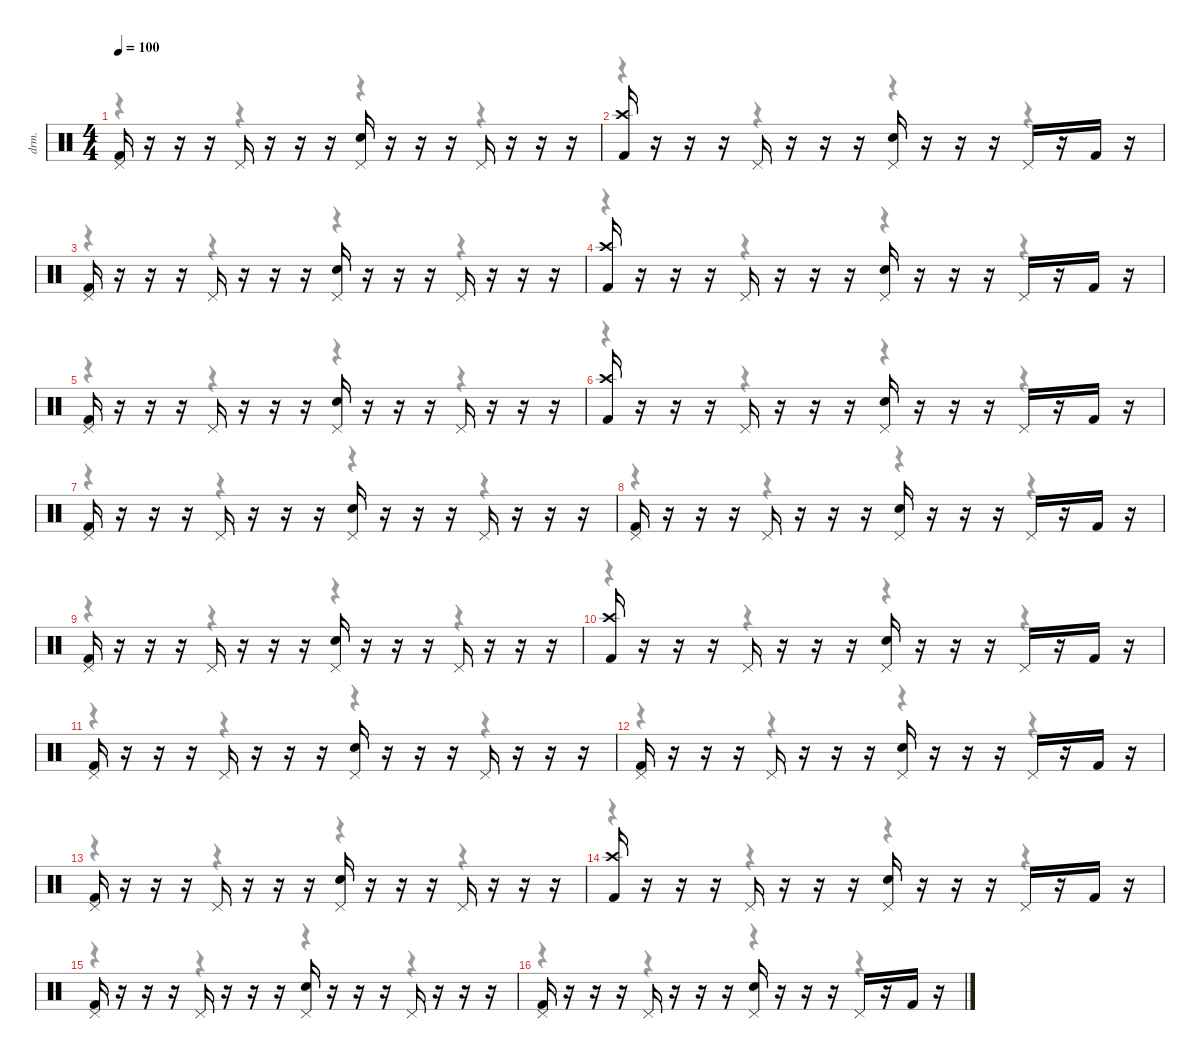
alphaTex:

\defaultSystemsLayout 4
\hideDynamics
\bracketExtendMode nobrackets
\otherSystemsTrackNameOrientation horizontal
\track ("Drums" "drm.") {instrument percussion}
\staff {score}
\articulation defaults
\voice
\ts (4 4)
\tempo 100
\clef neutral
\ks c
("Kick (hit) 2" "Pedal Hi-Hat (hit)").16{dy ff} r.16 r.16 r.16 "Pedal Hi-Hat (hit)".16 r.16 r.16 r.16 ("Snare (hit) 2" "Pedal Hi-Hat (hit)").16 r.16 r.16 r.16 "Pedal Hi-Hat (hit)".16 r.16 r.16 r.16 |
("Kick (hit) 2" "Crash high (hit)").16 r.16 r.16 r.16 "Pedal Hi-Hat (hit)".16 r.16 r.16 r.16 ("Snare (hit) 2" "Pedal Hi-Hat (hit)").16 r.16 r.16 r.16 "Pedal Hi-Hat (hit)".16 r.16 "Kick (hit) 2".16{dy f} r.16 |
("Kick (hit) 2" "Pedal Hi-Hat (hit)").16{dy ff} r.16 r.16 r.16 "Pedal Hi-Hat (hit)".16 r.16 r.16 r.16 ("Snare (hit) 2" "Pedal Hi-Hat (hit)").16 r.16 r.16 r.16 "Pedal Hi-Hat (hit)".16 r.16 r.16 r.16 |
("Kick (hit) 2" "Crash high (hit)").16 r.16 r.16 r.16 "Pedal Hi-Hat (hit)".16 r.16 r.16 r.16 ("Snare (hit) 2" "Pedal Hi-Hat (hit)").16 r.16 r.16 r.16 "Pedal Hi-Hat (hit)".16 r.16 "Kick (hit) 2".16{dy f} r.16 |
("Kick (hit) 2" "Pedal Hi-Hat (hit)").16{dy ff} r.16 r.16 r.16 "Pedal Hi-Hat (hit)".16 r.16 r.16 r.16 ("Snare (hit) 2" "Pedal Hi-Hat (hit)").16 r.16 r.16 r.16 "Pedal Hi-Hat (hit)".16 r.16 r.16 r.16 |
("Kick (hit) 2" "Crash high (hit)").16 r.16 r.16 r.16 "Pedal Hi-Hat (hit)".16 r.16 r.16 r.16 ("Snare (hit) 2" "Pedal Hi-Hat (hit)").16 r.16 r.16 r.16 "Pedal Hi-Hat (hit)".16 r.16 "Kick (hit) 2".16{dy f} r.16 |
("Kick (hit) 2" "Pedal Hi-Hat (hit)").16{dy ff} r.16 r.16 r.16 "Pedal Hi-Hat (hit)".16 r.16 r.16 r.16 ("Snare (hit) 2" "Pedal Hi-Hat (hit)").16 r.16 r.16 r.16 "Pedal Hi-Hat (hit)".16 r.16 r.16 r.16 |
("Kick (hit) 2" "Pedal Hi-Hat (hit)").16 r.16 r.16 r.16 "Pedal Hi-Hat (hit)".16 r.16 r.16 r.16 ("Snare (hit) 2" "Pedal Hi-Hat (hit)").16 r.16 r.16 r.16 "Pedal Hi-Hat (hit)".16 r.16 "Kick (hit) 2".16{dy f} r.16 |
("Kick (hit) 2" "Pedal Hi-Hat (hit)").16{dy ff} r.16 r.16 r.16 "Pedal Hi-Hat (hit)".16 r.16 r.16 r.16 ("Snare (hit) 2" "Pedal Hi-Hat (hit)").16 r.16 r.16 r.16 "Pedal Hi-Hat (hit)".16 r.16 r.16 r.16 |
("Kick (hit) 2" "Crash high (hit)").16 r.16 r.16 r.16 "Pedal Hi-Hat (hit)".16 r.16 r.16 r.16 ("Snare (hit) 2" "Pedal Hi-Hat (hit)").16 r.16 r.16 r.16 "Pedal Hi-Hat (hit)".16 r.16 "Kick (hit) 2".16{dy f} r.16 |
("Kick (hit) 2" "Pedal Hi-Hat (hit)").16{dy ff} r.16 r.16 r.16 "Pedal Hi-Hat (hit)".16 r.16 r.16 r.16 ("Snare (hit) 2" "Pedal Hi-Hat (hit)").16 r.16 r.16 r.16 "Pedal Hi-Hat (hit)".16 r.16 r.16 r.16 |
("Kick (hit) 2" "Pedal Hi-Hat (hit)").16 r.16 r.16 r.16 "Pedal Hi-Hat (hit)".16 r.16 r.16 r.16 ("Snare (hit) 2" "Pedal Hi-Hat (hit)").16 r.16 r.16 r.16 "Pedal Hi-Hat (hit)".16 r.16 "Kick (hit) 2".16{dy f} r.16 |
("Kick (hit) 2" "Pedal Hi-Hat (hit)").16{dy ff} r.16 r.16 r.16 "Pedal Hi-Hat (hit)".16 r.16 r.16 r.16 ("Snare (hit) 2" "Pedal Hi-Hat (hit)").16 r.16 r.16 r.16 "Pedal Hi-Hat (hit)".16 r.16 r.16 r.16 |
("Kick (hit) 2" "Crash high (hit)").16 r.16 r.16 r.16 "Pedal Hi-Hat (hit)".16 r.16 r.16 r.16 ("Snare (hit) 2" "Pedal Hi-Hat (hit)").16 r.16 r.16 r.16 "Pedal Hi-Hat (hit)".16 r.16 "Kick (hit) 2".16{dy f} r.16 |
("Kick (hit) 2" "Pedal Hi-Hat (hit)").16{dy ff} r.16 r.16 r.16 "Pedal Hi-Hat (hit)".16 r.16 r.16 r.16 ("Snare (hit) 2" "Pedal Hi-Hat (hit)").16 r.16 r.16 r.16 "Pedal Hi-Hat (hit)".16 r.16 r.16 r.16 |
("Kick (hit) 2" "Pedal Hi-Hat (hit)").16 r.16 r.16 r.16 "Pedal Hi-Hat (hit)".16 r.16 r.16 r.16 ("Snare (hit) 2" "Pedal Hi-Hat (hit)").16 r.16 r.16 r.16 "Pedal Hi-Hat (hit)".16 r.16 "Kick (hit) 2".16{dy f} r.16
\voice
\clef neutral
\ottava regular
\simile none
\ks c
r.4{dy mf} r.4 r.4 r.4 |
r.4 r.4 r.4 r.4 |
r.4 r.4 r.4 r.4 |
r.4 r.4 r.4 r.4 |
r.4 r.4 r.4 r.4 |
r.4 r.4 r.4 r.4 |
r.4 r.4 r.4 r.4 |
r.4 r.4 r.4 r.4 |
r.4 r.4 r.4 r.4 |
r.4 r.4 r.4 r.4 |
r.4 r.4 r.4 r.4 |
r.4 r.4 r.4 r.4 |
r.4 r.4 r.4 r.4 |
r.4 r.4 r.4 r.4 |
r.4 r.4 r.4 r.4 |
r.4 r.4 r.4 r.4
